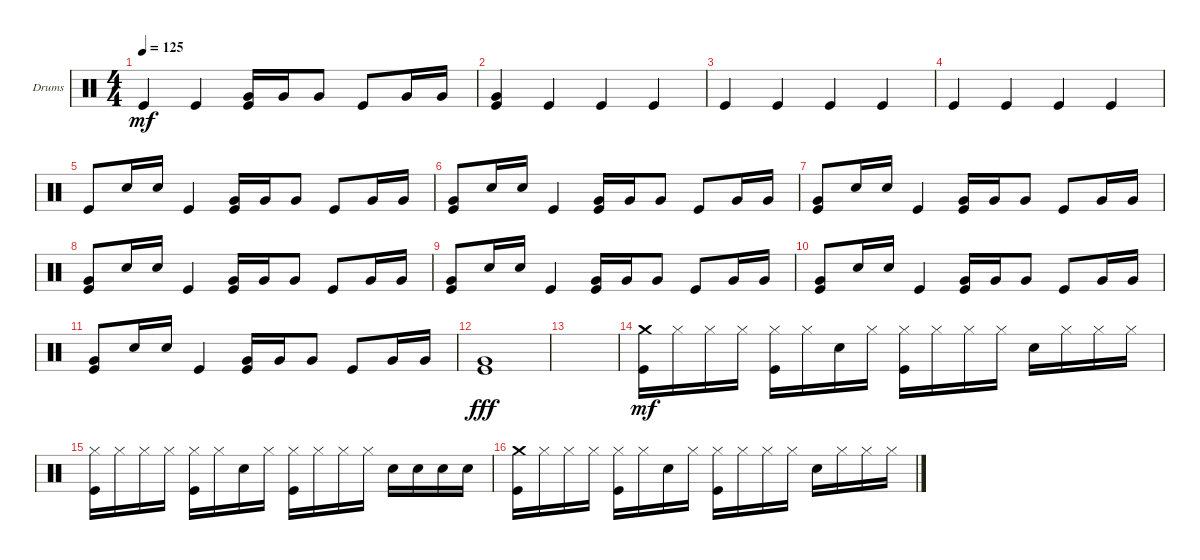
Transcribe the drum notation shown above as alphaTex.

\defaultSystemsLayout 4
\bracketExtendMode groupsimilarinstruments
\firstSystemTrackNameOrientation horizontal
\otherSystemsTrackNameOrientation horizontal
\track ("Drumkit" "Drums") {instrument percussion}
\staff {score}
\articulation defaults
\ts (4 4)
\tempo 125
\clef neutral
\scale
0.333333
\ks c "Kick (hit)".4{dy mf} "Kick (hit)".4
("Kick (hit)" "Very Low Tom (hit)").16 "Very Low Tom (hit)".16 "Very Low Tom (hit)".8 "Kick (hit)".8 "Very Low Tom (hit)".16 "Very Low Tom (hit)".16 |
\scale
0.333333 ("Kick (hit)" "Very Low Tom (hit)").4 "Kick (hit)".4 "Kick (hit)".4 "Kick (hit)".4 |
\scale
0.333333 "Kick (hit)".4 "Kick (hit)".4 "Kick (hit)".4 "Kick (hit)".4 |
\scale
0.333333 "Kick (hit)".4 "Kick (hit)".4 "Kick (hit)".4 "Kick (hit)".4 |
\scale
0.333333 "Kick (hit)".8 "Snare (hit) 2".16 "Snare (hit) 2".16 "Kick (hit)".4 ("Kick (hit)" "Very Low Tom (hit)").16 "Very Low Tom (hit)".16 "Very Low Tom (hit)".8 "Kick (hit)".8 "Very Low Tom (hit)".16 "Very Low Tom (hit)".16 |
\scale
0.333333 ("Kick (hit)" "Very Low Tom (hit)").8 "Snare (hit) 2".16 "Snare (hit) 2".16 "Kick (hit)".4 ("Kick (hit)" "Very Low Tom (hit)").16 "Very Low Tom (hit)".16 "Very Low Tom (hit)".8 "Kick (hit)".8 "Very Low Tom (hit)".16 "Very Low Tom (hit)".16 |
\scale
0.333333 ("Kick (hit)" "Very Low Tom (hit)").8 "Snare (hit) 2".16 "Snare (hit) 2".16 "Kick (hit)".4 ("Kick (hit)" "Very Low Tom (hit)").16 "Very Low Tom (hit)".16 "Very Low Tom (hit)".8 "Kick (hit)".8 "Very Low Tom (hit)".16 "Very Low Tom (hit)".16 |
\scale
0.333333 ("Kick (hit)" "Very Low Tom (hit)").8 "Snare (hit) 2".16 "Snare (hit) 2".16 "Kick (hit)".4 ("Kick (hit)" "Very Low Tom (hit)").16 "Very Low Tom (hit)".16 "Very Low Tom (hit)".8 "Kick (hit)".8 "Very Low Tom (hit)".16 "Very Low Tom (hit)".16 |
\scale
0.333333 ("Kick (hit)" "Very Low Tom (hit)").8 "Snare (hit) 2".16 "Snare (hit) 2".16 "Kick (hit)".4 ("Kick (hit)" "Very Low Tom (hit)").16 "Very Low Tom (hit)".16 "Very Low Tom (hit)".8 "Kick (hit)".8 "Very Low Tom (hit)".16 "Very Low Tom (hit)".16 |
\scale
0.333333 ("Kick (hit)" "Very Low Tom (hit)").8 "Snare (hit) 2".16 "Snare (hit) 2".16 "Kick (hit)".4 ("Kick (hit)" "Very Low Tom (hit)").16 "Very Low Tom (hit)".16 "Very Low Tom (hit)".8 "Kick (hit)".8 "Very Low Tom (hit)".16 "Very Low Tom (hit)".16 |
\scale
0.333333 ("Kick (hit)" "Very Low Tom (hit)").8 "Snare (hit) 2".16 "Snare (hit) 2".16 "Kick (hit)".4 ("Kick (hit)" "Very Low Tom (hit)").16 "Very Low Tom (hit)".16 "Very Low Tom (hit)".8 "Kick (hit)".8 "Very Low Tom (hit)".16 "Very Low Tom (hit)".16 |
\scale
0.333333 ("Kick (hit)" "Very Low Tom (hit)").1{dy fff} |
\scale
0.333333 |
\scale
0.333333 ("Kick (hit)" "Crash medium (hit)").16{dy mf} "Hi-Hat (closed)".16 "Hi-Hat (closed)".16 "Hi-Hat (closed)".16 ("Kick (hit)" "Hi-Hat (closed)").16 "Hi-Hat (closed)".16 "Snare (hit) 2".16 "Hi-Hat (closed)".16 ("Hi-Hat (closed)" "Kick (hit)").16 "Hi-Hat (closed)".16 "Hi-Hat (closed)".16 "Hi-Hat (closed)".16 "Snare (hit) 2".16 "Hi-Hat (closed)".16 "Hi-Hat (closed)".16 "Hi-Hat (closed)".16 |
\scale
0.333333 ("Kick (hit)" "Hi-Hat (closed)").16 "Hi-Hat (closed)".16 "Hi-Hat (closed)".16 "Hi-Hat (closed)".16 ("Kick (hit)" "Hi-Hat (closed)").16 "Hi-Hat (closed)".16 "Snare (hit) 2".16 "Hi-Hat (closed)".16 ("Hi-Hat (closed)" "Kick (hit)").16 "Hi-Hat (closed)".16 "Hi-Hat (closed)".16 "Hi-Hat (closed)".16 "Snare (hit) 2".16 "Snare (hit) 2".16 "Snare (hit) 2".16 "Snare (hit) 2".16 |
\scale
0.333333 ("Kick (hit)" "Crash medium (hit)").16 "Hi-Hat (closed)".16 "Hi-Hat (closed)".16 "Hi-Hat (closed)".16 ("Kick (hit)" "Hi-Hat (closed)").16 "Hi-Hat (closed)".16 "Snare (hit) 2".16 "Hi-Hat (closed)".16 ("Hi-Hat (closed)" "Kick (hit)").16 "Hi-Hat (closed)".16 "Hi-Hat (closed)".16 "Hi-Hat (closed)".16 "Snare (hit) 2".16 "Hi-Hat (closed)".16 "Hi-Hat (closed)".16 "Hi-Hat (closed)".16
